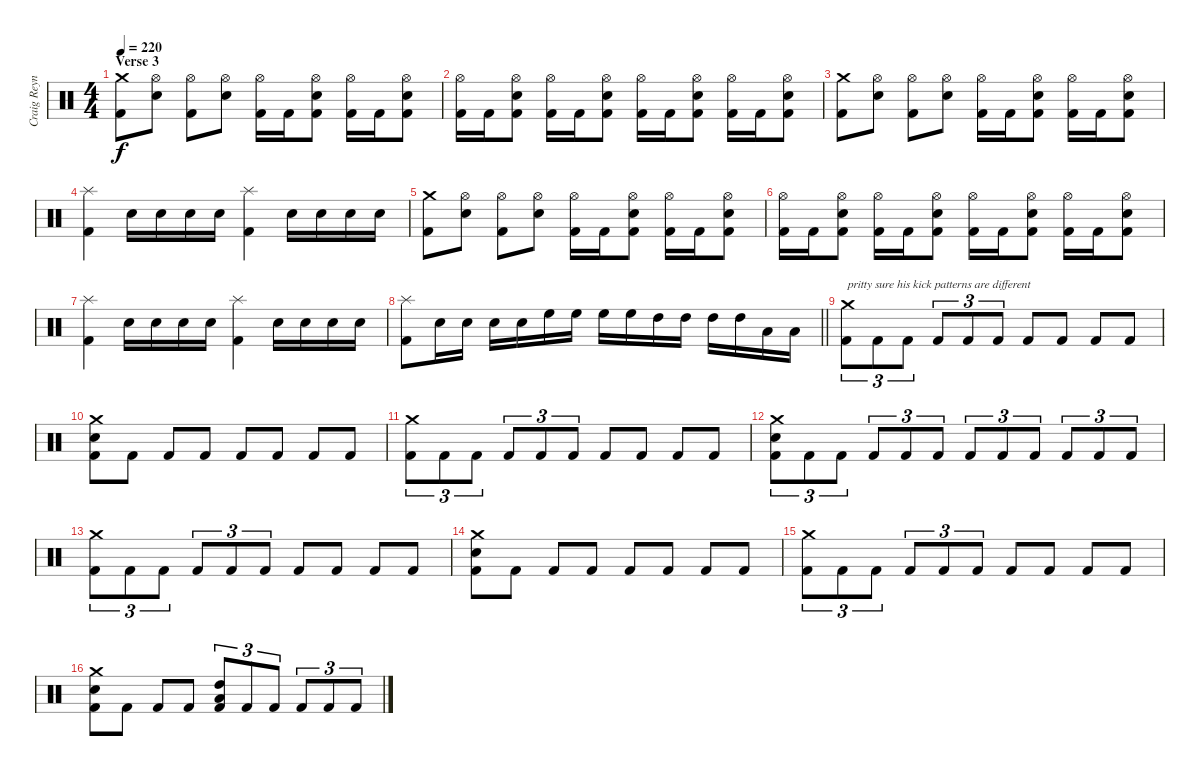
\track ("Craig Reynolds" "Craig Reyn") {instrument percussion}
\staff {score}
\articulation defaults
\ts (4 4)
\section ("" "Verse 3")
\tempo 220
\clef neutral
\ks c
("Crash medium (hit)" "Kick (hit) 2").8{dy f} ("Hi-Hat (open)" "Electric Snare (hit)").8 ("Hi-Hat (open)" "Kick (hit) 2").8 ("Hi-Hat (open)" "Electric Snare (hit)").8 ("Hi-Hat (open)" "Kick (hit) 2").16 "Kick (hit) 2".16 ("Hi-Hat (open)" "Electric Snare (hit)" "Kick (hit) 2").8 ("Hi-Hat (open)" "Kick (hit) 2").16 "Kick (hit) 2".16 ("Hi-Hat (open)" "Electric Snare (hit)" "Kick (hit) 2").8 |
("Hi-Hat (open)" "Kick (hit) 2").16 "Kick (hit) 2".16 ("Hi-Hat (open)" "Electric Snare (hit)" "Kick (hit) 2").8 ("Hi-Hat (open)" "Kick (hit) 2").16 "Kick (hit) 2".16 ("Hi-Hat (open)" "Electric Snare (hit)" "Kick (hit) 2").8 ("Hi-Hat (open)" "Kick (hit) 2").16 "Kick (hit) 2".16 ("Hi-Hat (open)" "Electric Snare (hit)" "Kick (hit) 2").8 ("Hi-Hat (open)" "Kick (hit) 2").16 "Kick (hit) 2".16 ("Hi-Hat (open)" "Electric Snare (hit)" "Kick (hit) 2").8 |
("Crash medium (hit)" "Kick (hit) 2").8 ("Hi-Hat (open)" "Electric Snare (hit)").8 ("Hi-Hat (open)" "Kick (hit) 2").8 ("Hi-Hat (open)" "Electric Snare (hit)").8 ("Hi-Hat (open)" "Kick (hit) 2").16 "Kick (hit) 2".16 ("Hi-Hat (open)" "Electric Snare (hit)" "Kick (hit) 2").8 ("Hi-Hat (open)" "Kick (hit) 2").16 "Kick (hit) 2".16 ("Hi-Hat (open)" "Electric Snare (hit)" "Kick (hit) 2").8 |
("Splash (hit)" "Kick (hit) 2").4 "Electric Snare (hit)".16 "Electric Snare (hit)".16 "Electric Snare (hit)".16 "Electric Snare (hit)".16 ("Splash (hit)" "Kick (hit) 2").4 "Electric Snare (hit)".16 "Electric Snare (hit)".16 "Electric Snare (hit)".16 "Electric Snare (hit)".16 |
("Crash medium (hit)" "Kick (hit) 2").8 ("Hi-Hat (open)" "Electric Snare (hit)").8 ("Hi-Hat (open)" "Kick (hit) 2").8 ("Hi-Hat (open)" "Electric Snare (hit)").8 ("Hi-Hat (open)" "Kick (hit) 2").16 "Kick (hit) 2".16 ("Hi-Hat (open)" "Electric Snare (hit)" "Kick (hit) 2").8 ("Hi-Hat (open)" "Kick (hit) 2").16 "Kick (hit) 2".16 ("Hi-Hat (open)" "Electric Snare (hit)" "Kick (hit) 2").8 |
("Hi-Hat (open)" "Kick (hit) 2").16 "Kick (hit) 2".16 ("Hi-Hat (open)" "Electric Snare (hit)" "Kick (hit) 2").8 ("Hi-Hat (open)" "Kick (hit) 2").16 "Kick (hit) 2".16 ("Hi-Hat (open)" "Electric Snare (hit)" "Kick (hit) 2").8 ("Hi-Hat (open)" "Kick (hit) 2").16 "Kick (hit) 2".16 ("Hi-Hat (open)" "Electric Snare (hit)" "Kick (hit) 2").8 ("Hi-Hat (open)" "Kick (hit) 2").16 "Kick (hit) 2".16 ("Hi-Hat (open)" "Electric Snare (hit)" "Kick (hit) 2").8 |
("Splash (hit)" "Kick (hit) 2").4 "Electric Snare (hit)".16 "Electric Snare (hit)".16 "Electric Snare (hit)".16 "Electric Snare (hit)".16 ("Splash (hit)" "Kick (hit) 2").4 "Electric Snare (hit)".16 "Electric Snare (hit)".16 "Electric Snare (hit)".16 "Electric Snare (hit)".16 |
\barLineRight lightlight
("Splash (hit)" "Kick (hit) 2").8 "Electric Snare (hit)".16 "Electric Snare (hit)".16 "Electric Snare (hit)".16 "Electric Snare (hit)".16 "High Floor Tom (hit)".16 "High Floor Tom (hit)".16 "High Floor Tom (hit)".16 "High Floor Tom (hit)".16 "High Tom (hit)".16 "High Tom (hit)".16 "High Tom (hit)".16 "High Tom (hit)".16 "Low Tom (hit)".16 "Low Tom (hit)".16 |
("Crash medium (hit)" "Kick (hit) 2").8{tu (3 2) txt "pritty sure his kick patterns are different"} "Kick (hit) 2".8{tu (3 2)} "Kick (hit) 2".8{tu (3 2)} "Kick (hit) 2".8{tu (3 2)} "Kick (hit) 2".8{tu (3 2)} "Kick (hit) 2".8{tu (3 2)} "Kick (hit) 2".8 "Kick (hit) 2".8 "Kick (hit) 2".8 "Kick (hit) 2".8 |
("Crash medium (hit)" "Electric Snare (hit)" "Kick (hit) 2").8 "Kick (hit) 2".8 "Kick (hit) 2".8 "Kick (hit) 2".8 "Kick (hit) 2".8 "Kick (hit) 2".8 "Kick (hit) 2".8 "Kick (hit) 2".8 |
("Crash medium (hit)" "Kick (hit) 2").8{tu (3 2)} "Kick (hit) 2".8{tu (3 2)} "Kick (hit) 2".8{tu (3 2)} "Kick (hit) 2".8{tu (3 2)} "Kick (hit) 2".8{tu (3 2)} "Kick (hit) 2".8{tu (3 2)} "Kick (hit) 2".8 "Kick (hit) 2".8 "Kick (hit) 2".8 "Kick (hit) 2".8 |
("Crash medium (hit)" "Electric Snare (hit)" "Kick (hit) 2").8{tu (3 2)} "Kick (hit) 2".8{tu (3 2)} "Kick (hit) 2".8{tu (3 2)} "Kick (hit) 2".8{tu (3 2)} "Kick (hit) 2".8{tu (3 2)} "Kick (hit) 2".8{tu (3 2)} "Kick (hit) 2".8{tu (3 2)} "Kick (hit) 2".8{tu (3 2)} "Kick (hit) 2".8{tu (3 2)} "Kick (hit) 2".8{tu (3 2)} "Kick (hit) 2".8{tu (3 2)} "Kick (hit) 2".8{tu (3 2)} |
("Crash medium (hit)" "Kick (hit) 2").8{tu (3 2)} "Kick (hit) 2".8{tu (3 2)} "Kick (hit) 2".8{tu (3 2)} "Kick (hit) 2".8{tu (3 2)} "Kick (hit) 2".8{tu (3 2)} "Kick (hit) 2".8{tu (3 2)} "Kick (hit) 2".8 "Kick (hit) 2".8 "Kick (hit) 2".8 "Kick (hit) 2".8 |
("Crash medium (hit)" "Electric Snare (hit)" "Kick (hit) 2").8 "Kick (hit) 2".8 "Kick (hit) 2".8 "Kick (hit) 2".8 "Kick (hit) 2".8 "Kick (hit) 2".8 "Kick (hit) 2".8 "Kick (hit) 2".8 |
("Crash medium (hit)" "Kick (hit) 2").8{tu (3 2)} "Kick (hit) 2".8{tu (3 2)} "Kick (hit) 2".8{tu (3 2)} "Kick (hit) 2".8{tu (3 2)} "Kick (hit) 2".8{tu (3 2)} "Kick (hit) 2".8{tu (3 2)} "Kick (hit) 2".8 "Kick (hit) 2".8 "Kick (hit) 2".8 "Kick (hit) 2".8 |
("Crash medium (hit)" "Electric Snare (hit)" "Kick (hit) 2").8 "Kick (hit) 2".8 "Kick (hit) 2".8 "Kick (hit) 2".8 ("High Tom (hit)" "Low Tom (hit)" "Kick (hit) 2").8{tu (3 2)} "Kick (hit) 2".8{tu (3 2)} "Kick (hit) 2".8{tu (3 2)} "Kick (hit) 2".8{tu (3 2)} "Kick (hit) 2".8{tu (3 2)} "Kick (hit) 2".8{tu (3 2)}
